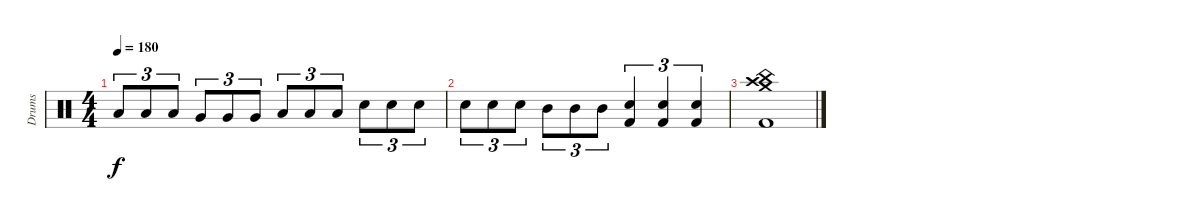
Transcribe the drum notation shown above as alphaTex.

\track ("Drums" "Drums") {instrument percussion}
\staff {score}
\articulation defaults
\ts (4 4)
\tempo 180
\clef neutral
\ks c "Low Floor Tom (hit)".8{tu (3 2) dy f} "Low Floor Tom (hit)".8{tu (3 2)} "Low Floor Tom (hit)".8{tu (3 2)} "Very Low Tom (hit)".8{tu (3 2)} "Very Low Tom (hit)".8{tu (3 2)} "Very Low Tom (hit)".8{tu (3 2)} "Low Tom (hit)".8{tu (3 2)} "Low Tom (hit)".8{tu (3 2)} "Low Tom (hit)".8{tu (3 2)} "Electric Snare (hit)".8{tu (3 2)} "Electric Snare (hit)".8{tu (3 2)} "Electric Snare (hit)".8{tu (3 2)}
|
"Electric Snare (hit)".8{tu (3 2)} "Electric Snare (hit)".8{tu (3 2)} "Electric Snare (hit)".8{tu (3 2)} "Mid Tom (hit)".8{tu (3 2)} "Mid Tom (hit)".8{tu (3 2)} "Mid Tom (hit)".8{tu (3 2)} ("Kick (hit) 2" "Electric Snare (hit)").4{tu (3 2)} ("Kick (hit) 2" "Electric Snare (hit)").4{tu (3 2)} ("Kick (hit) 2" "Electric Snare (hit)").4{tu (3 2)} |
("Kick (hit) 2" "China (hit)" "Crash high (hit)" "Crash medium (hit)").1
